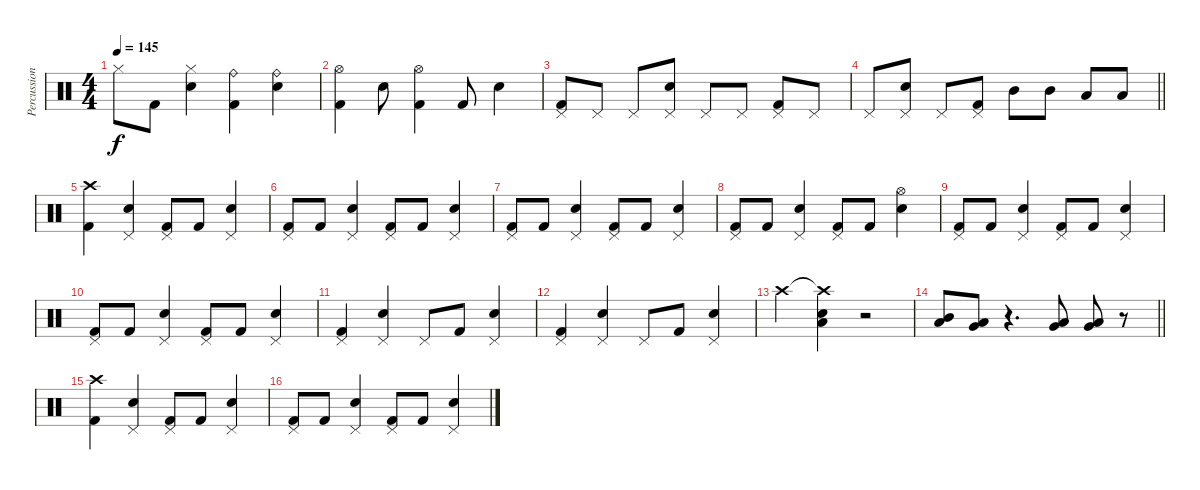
\track ("Percussion" "Percussion") {instrument percussion}
\staff {score}
\articulation defaults
\ts (4 4)
\tempo 145
\clef neutral
\ks c "Hi-Hat (closed)".8{dy f} "Kick (hit) 2".8
("Hi-Hat (closed)" "Snare (hit) 2").4 ("Ride (bell)" "Kick (hit) 2").4 ("Ride (bell)" "Snare (hit) 2").4 |
("Hi-Hat (open)" "Kick (hit) 2").4 "Snare (hit) 2".8 ("Hi-Hat (open)" "Kick (hit) 2").4 "Kick (hit) 2".8 "Snare (hit) 2".4 |
("Pedal Hi-Hat (hit)" "Kick (hit) 2").8 "Pedal Hi-Hat (hit)".8 "Pedal Hi-Hat (hit)".8 ("Pedal Hi-Hat (hit)" "Snare (hit) 2").8 "Pedal Hi-Hat (hit)".8 "Pedal Hi-Hat (hit)".8 ("Pedal Hi-Hat (hit)" "Kick (hit) 2").8 "Pedal Hi-Hat (hit)".8 |
\barLineRight lightlight "Pedal Hi-Hat (hit)".8
("Pedal Hi-Hat (hit)" "Snare (hit) 2").8 "Pedal Hi-Hat (hit)".8 ("Pedal Hi-Hat (hit)" "Kick (hit) 2").8 "Mid Tom (hit)".8 "Mid Tom (hit)".8 "Low Tom (hit)".8 "Low Tom (hit)".8 |
\section ("" "")
("Crash high (hit)" "Kick (hit) 2").4 ("Pedal Hi-Hat (hit)" "Snare (hit) 2").4 ("Pedal Hi-Hat (hit)" "Kick (hit) 2").8 "Kick (hit) 2".8 ("Pedal Hi-Hat (hit)" "Snare (hit) 2").4 |
("Pedal Hi-Hat (hit)" "Kick (hit) 2").8 "Kick (hit) 2".8 ("Pedal Hi-Hat (hit)" "Snare (hit) 2").4 ("Pedal Hi-Hat (hit)" "Kick (hit) 2").8 "Kick (hit) 2".8 ("Pedal Hi-Hat (hit)" "Snare (hit) 2").4 |
("Pedal Hi-Hat (hit)" "Kick (hit) 2").8 "Kick (hit) 2".8 ("Pedal Hi-Hat (hit)" "Snare (hit) 2").4 ("Pedal Hi-Hat (hit)" "Kick (hit) 2").8 "Kick (hit) 2".8 ("Pedal Hi-Hat (hit)" "Snare (hit) 2").4 |
("Pedal Hi-Hat (hit)" "Kick (hit) 2").8 "Kick (hit) 2".8 ("Pedal Hi-Hat (hit)" "Snare (hit) 2").4 ("Pedal Hi-Hat (hit)" "Kick (hit) 2").8 "Kick (hit) 2".8 ("Hi-Hat (open)" "Snare (hit) 2").4 |
("Pedal Hi-Hat (hit)" "Kick (hit) 2").8 "Kick (hit) 2".8 ("Pedal Hi-Hat (hit)" "Snare (hit) 2").4 ("Pedal Hi-Hat (hit)" "Kick (hit) 2").8 "Kick (hit) 2".8 ("Pedal Hi-Hat (hit)" "Snare (hit) 2").4 |
("Pedal Hi-Hat (hit)" "Kick (hit) 2").8 "Kick (hit) 2".8 ("Pedal Hi-Hat (hit)" "Snare (hit) 2").4 ("Pedal Hi-Hat (hit)" "Kick (hit) 2").8 "Kick (hit) 2".8 ("Pedal Hi-Hat (hit)" "Snare (hit) 2").4 |
("Pedal Hi-Hat (hit)" "Kick (hit) 2").4 ("Pedal Hi-Hat (hit)" "Snare (hit) 2").4 "Pedal Hi-Hat (hit)".8 "Kick (hit) 2".8 ("Pedal Hi-Hat (hit)" "Snare (hit) 2").4 |
("Pedal Hi-Hat (hit)" "Kick (hit) 2").4 ("Pedal Hi-Hat (hit)" "Snare (hit) 2").4 "Pedal Hi-Hat (hit)".8 "Kick (hit) 2".8 ("Pedal Hi-Hat (hit)" "Snare (hit) 2").4 |
"Crash high (hit)".4 ("Crash high (hit)"{t} "Low Tom (hit)" "Snare (hit) 2").4 r.2 |
\barLineRight lightlight
("Mid Tom (hit)" "Low Tom (hit)").8 ("Low Tom (hit)" "Very Low Tom (hit)").8 r.4{d} ("Low Tom (hit)" "Very Low Tom (hit)").8 ("Very Low Tom (hit)" "Low Floor Tom (hit)").8 r.8 |
\section ("" "")
("Crash high (hit)" "Kick (hit) 2").4 ("Pedal Hi-Hat (hit)" "Snare (hit) 2").4 ("Pedal Hi-Hat (hit)" "Kick (hit) 2").8 "Kick (hit) 2".8 ("Pedal Hi-Hat (hit)" "Snare (hit) 2").4 |
("Pedal Hi-Hat (hit)" "Kick (hit) 2").8 "Kick (hit) 2".8 ("Pedal Hi-Hat (hit)" "Snare (hit) 2").4 ("Pedal Hi-Hat (hit)" "Kick (hit) 2").8 "Kick (hit) 2".8 ("Pedal Hi-Hat (hit)" "Snare (hit) 2").4
